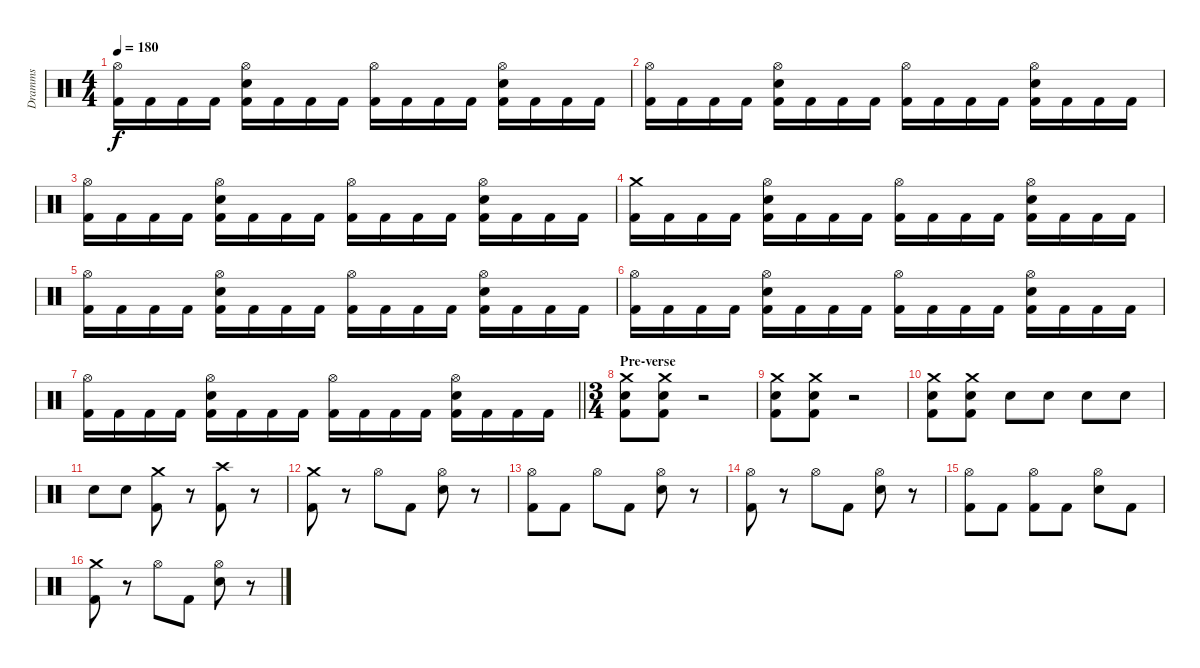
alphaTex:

\track ("Dramms" "Dramms") {instrument percussion}
\staff {score}
\articulation defaults
\ts (4 4)
\tempo 180
\clef neutral
\ks c
("Hi-Hat (open)" "Kick (hit) 2").16{dy f} "Kick (hit) 2".16 "Kick (hit) 2".16 "Kick (hit) 2".16 ("Hi-Hat (open)" "Electric Snare (hit)" "Kick (hit) 2").16 "Kick (hit) 2".16 "Kick (hit) 2".16 "Kick (hit) 2".16 ("Hi-Hat (open)" "Kick (hit) 2").16 "Kick (hit) 2".16 "Kick (hit) 2".16 "Kick (hit) 2".16 ("Hi-Hat (open)" "Electric Snare (hit)" "Kick (hit) 2").16 "Kick (hit) 2".16 "Kick (hit) 2".16 "Kick (hit) 2".16 |
("Hi-Hat (open)" "Kick (hit) 2").16 "Kick (hit) 2".16 "Kick (hit) 2".16 "Kick (hit) 2".16 ("Hi-Hat (open)" "Electric Snare (hit)" "Kick (hit) 2").16 "Kick (hit) 2".16 "Kick (hit) 2".16 "Kick (hit) 2".16 ("Hi-Hat (open)" "Kick (hit) 2").16 "Kick (hit) 2".16 "Kick (hit) 2".16 "Kick (hit) 2".16 ("Hi-Hat (open)" "Electric Snare (hit)" "Kick (hit) 2").16 "Kick (hit) 2".16 "Kick (hit) 2".16 "Kick (hit) 2".16 |
("Hi-Hat (open)" "Kick (hit) 2").16 "Kick (hit) 2".16 "Kick (hit) 2".16 "Kick (hit) 2".16 ("Hi-Hat (open)" "Electric Snare (hit)" "Kick (hit) 2").16 "Kick (hit) 2".16 "Kick (hit) 2".16 "Kick (hit) 2".16 ("Hi-Hat (open)" "Kick (hit) 2").16 "Kick (hit) 2".16 "Kick (hit) 2".16 "Kick (hit) 2".16 ("Hi-Hat (open)" "Electric Snare (hit)" "Kick (hit) 2").16 "Kick (hit) 2".16 "Kick (hit) 2".16 "Kick (hit) 2".16 |
("Crash medium (hit)" "Kick (hit) 2").16 "Kick (hit) 2".16 "Kick (hit) 2".16 "Kick (hit) 2".16 ("Hi-Hat (open)" "Electric Snare (hit)" "Kick (hit) 2").16 "Kick (hit) 2".16 "Kick (hit) 2".16 "Kick (hit) 2".16 ("Hi-Hat (open)" "Kick (hit) 2").16 "Kick (hit) 2".16 "Kick (hit) 2".16 "Kick (hit) 2".16 ("Hi-Hat (open)" "Electric Snare (hit)" "Kick (hit) 2").16 "Kick (hit) 2".16 "Kick (hit) 2".16 "Kick (hit) 2".16 |
("Hi-Hat (open)" "Kick (hit) 2").16 "Kick (hit) 2".16 "Kick (hit) 2".16 "Kick (hit) 2".16 ("Hi-Hat (open)" "Electric Snare (hit)" "Kick (hit) 2").16 "Kick (hit) 2".16 "Kick (hit) 2".16 "Kick (hit) 2".16 ("Hi-Hat (open)" "Kick (hit) 2").16 "Kick (hit) 2".16 "Kick (hit) 2".16 "Kick (hit) 2".16 ("Hi-Hat (open)" "Electric Snare (hit)" "Kick (hit) 2").16 "Kick (hit) 2".16 "Kick (hit) 2".16 "Kick (hit) 2".16 |
("Hi-Hat (open)" "Kick (hit) 2").16 "Kick (hit) 2".16 "Kick (hit) 2".16 "Kick (hit) 2".16 ("Hi-Hat (open)" "Electric Snare (hit)" "Kick (hit) 2").16 "Kick (hit) 2".16 "Kick (hit) 2".16 "Kick (hit) 2".16 ("Hi-Hat (open)" "Kick (hit) 2").16 "Kick (hit) 2".16 "Kick (hit) 2".16 "Kick (hit) 2".16 ("Hi-Hat (open)" "Electric Snare (hit)" "Kick (hit) 2").16 "Kick (hit) 2".16 "Kick (hit) 2".16 "Kick (hit) 2".16 |
\barLineRight lightlight
("Hi-Hat (open)" "Kick (hit) 2").16 "Kick (hit) 2".16 "Kick (hit) 2".16 "Kick (hit) 2".16 ("Hi-Hat (open)" "Electric Snare (hit)" "Kick (hit) 2").16 "Kick (hit) 2".16 "Kick (hit) 2".16 "Kick (hit) 2".16 ("Hi-Hat (open)" "Kick (hit) 2").16 "Kick (hit) 2".16 "Kick (hit) 2".16 "Kick (hit) 2".16 ("Hi-Hat (open)" "Electric Snare (hit)" "Kick (hit) 2").16 "Kick (hit) 2".16 "Kick (hit) 2".16 "Kick (hit) 2".16 |
\ts (3 4)
\section ("" "Pre-verse")
("Crash medium (hit)" "Electric Snare (hit)" "Kick (hit) 2").8 ("Crash medium (hit)" "Electric Snare (hit)" "Kick (hit) 2").8 r.2 |
("Crash medium (hit)" "Electric Snare (hit)" "Kick (hit) 2").8 ("Crash medium (hit)" "Electric Snare (hit)" "Kick (hit) 2").8 r.2 |
("Crash medium (hit)" "Electric Snare (hit)" "Kick (hit) 2").8 ("Crash medium (hit)" "Electric Snare (hit)" "Kick (hit) 2").8 "Electric Snare (hit)".8 "Electric Snare (hit)".8 "Electric Snare (hit)".8 "Electric Snare (hit)".8 |
"Electric Snare (hit)".8 "Electric Snare (hit)".8 ("Crash medium (hit)" "Kick (hit) 2").8 r.8 ("Crash high (hit)" "Kick (hit) 2").8 r.8 |
("Crash medium (hit)" "Kick (hit) 2").8 r.8 "Hi-Hat (open)".8 "Kick (hit) 2".8 ("Hi-Hat (open)" "Electric Snare (hit)").8 r.8 |
("Hi-Hat (open)" "Kick (hit) 2").8 "Kick (hit) 2".8 "Hi-Hat (open)".8 "Kick (hit) 2".8 ("Hi-Hat (open)" "Electric Snare (hit)").8 r.8 |
("Hi-Hat (open)" "Kick (hit) 2").8 r.8 "Hi-Hat (open)".8 "Kick (hit) 2".8 ("Hi-Hat (open)" "Electric Snare (hit)").8 r.8 |
("Hi-Hat (open)" "Kick (hit) 2").8 "Kick (hit) 2".8 ("Hi-Hat (open)" "Kick (hit) 2").8 "Kick (hit) 2".8 ("Hi-Hat (open)" "Electric Snare (hit)").8 "Kick (hit) 2".8 |
("Crash medium (hit)" "Kick (hit) 2").8 r.8 "Hi-Hat (open)".8 "Kick (hit) 2".8 ("Hi-Hat (open)" "Electric Snare (hit)").8 r.8
